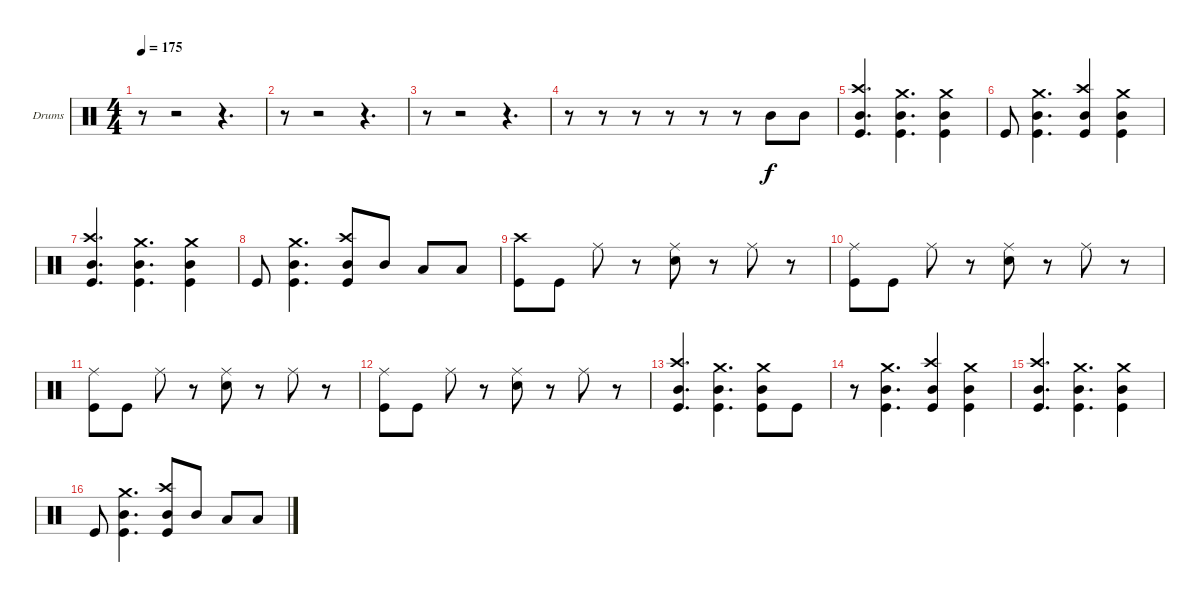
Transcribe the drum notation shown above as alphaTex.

\bracketExtendMode groupsimilarinstruments
\firstSystemTrackNameOrientation horizontal
\otherSystemsTrackNameOrientation horizontal
\track ("Drumkit" "Drums") {instrument percussion}
\staff {score}
\articulation defaults
\ts (4 4)
\tempo 175
\clef neutral
\ks c
r.8{dy f} r.2 r.4{d} |
r.8 r.2 r.4{d} |
r.8 r.2 r.4{d} |
r.8 r.8 r.8 r.8 r.8 r.8 "Mid Tom (hit)".8 "Mid Tom (hit)".8 |
("Crash high (hit)" "Mid Tom (hit)" "Kick (hit)").4{d} ("Crash medium (hit)" "Mid Tom (hit)" "Kick (hit)").4{d} ("Crash medium (hit)" "Mid Tom (hit)" "Kick (hit)").4 |
"Kick (hit)".8 ("Crash medium (hit)" "Mid Tom (hit)" "Kick (hit)").4{d} ("Crash high (hit)" "Mid Tom (hit)" "Kick (hit)").4 ("Crash medium (hit)" "Mid Tom (hit)" "Kick (hit)").4 |
("Crash high (hit)" "Mid Tom (hit)" "Kick (hit)").4{d} ("Crash medium (hit)" "Mid Tom (hit)" "Kick (hit)").4{d} ("Crash medium (hit)" "Mid Tom (hit)" "Kick (hit)").4 |
"Kick (hit)".8 ("Crash medium (hit)" "Mid Tom (hit)" "Kick (hit)").4{d} ("Crash high (hit)" "Mid Tom (hit)" "Kick (hit)").8 "Mid Tom (hit)".8 "Low Tom (hit)".8 "Low Tom (hit)".8 |
("Crash high (hit)" "Kick (hit)").8 "Kick (hit)".8 "Ride (middle)".8 r.8 ("Ride (middle)" "Snare (hit) 2").8 r.8 "Ride (middle)".8 r.8 |
("Ride (middle)" "Kick (hit)").8 "Kick (hit)".8 "Ride (middle)".8 r.8 ("Ride (middle)" "Snare (hit) 2").8 r.8 "Ride (middle)".8 r.8 |
("Ride (middle)" "Kick (hit)").8 "Kick (hit)".8 "Ride (middle)".8 r.8 ("Ride (middle)" "Snare (hit) 2").8 r.8 "Ride (middle)".8 r.8 |
("Ride (middle)" "Kick (hit)").8 "Kick (hit)".8 "Ride (middle)".8 r.8 ("Ride (middle)" "Snare (hit) 2").8 r.8 "Ride (middle)".8 r.8 |
("Crash high (hit)" "Mid Tom (hit)" "Kick (hit)").4{d} ("Crash medium (hit)" "Mid Tom (hit)" "Kick (hit)").4{d} ("Crash medium (hit)" "Mid Tom (hit)" "Kick (hit)").8 "Kick (hit)".8 |
r.8 ("Crash medium (hit)" "Mid Tom (hit)" "Kick (hit)").4{d} ("Crash high (hit)" "Mid Tom (hit)" "Kick (hit)").4 ("Crash medium (hit)" "Mid Tom (hit)" "Kick (hit)").4 |
("Crash high (hit)" "Mid Tom (hit)" "Kick (hit)").4{d} ("Crash medium (hit)" "Mid Tom (hit)" "Kick (hit)").4{d} ("Crash medium (hit)" "Mid Tom (hit)" "Kick (hit)").4 |
"Kick (hit)".8 ("Crash medium (hit)" "Mid Tom (hit)" "Kick (hit)").4{d} ("Crash high (hit)" "Mid Tom (hit)" "Kick (hit)").8 "Mid Tom (hit)".8 "Low Tom (hit)".8 "Low Tom (hit)".8
